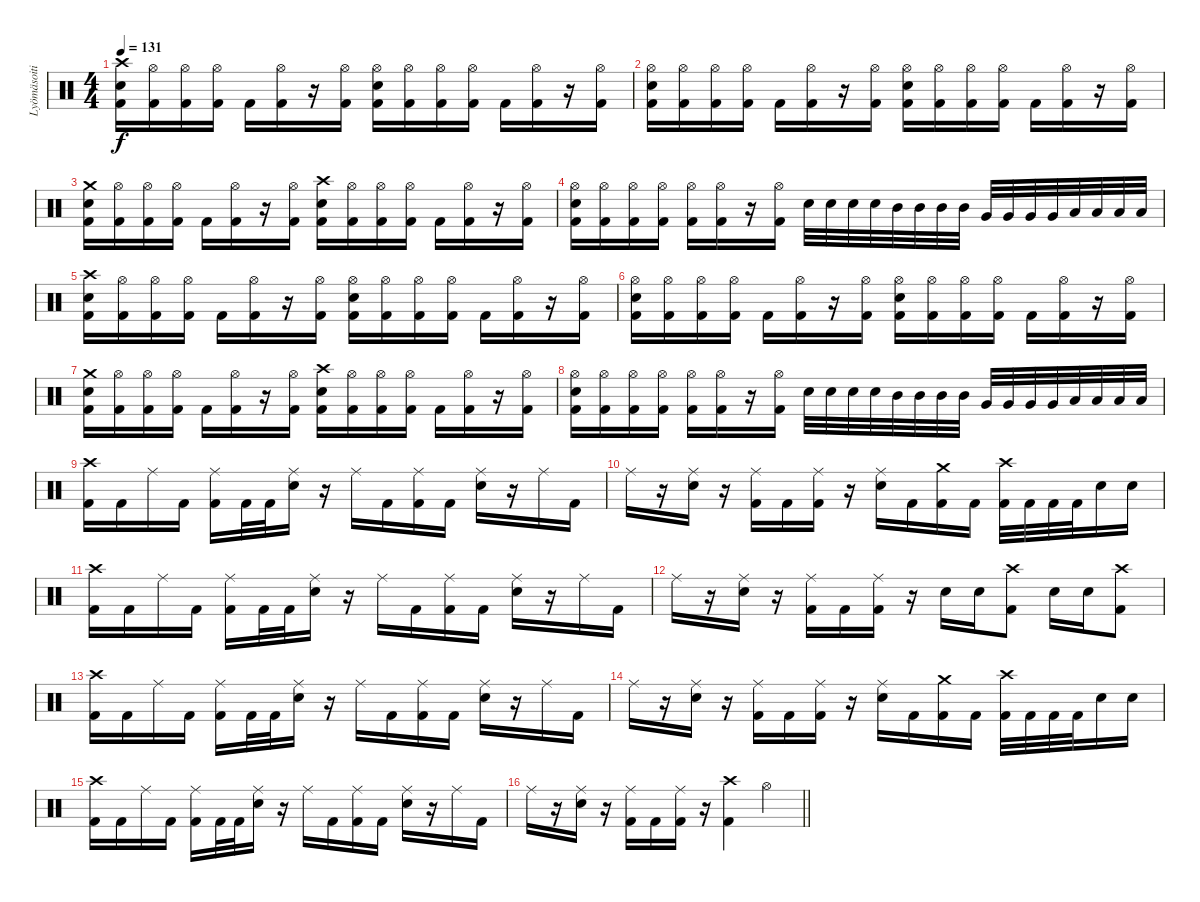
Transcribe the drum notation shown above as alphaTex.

\track ("Lyömäsoitin" "Lyömäsoiti") {instrument percussion}
\staff {score}
\articulation defaults
\ts (4 4)
\tempo 131
\clef neutral
\ks c
("Crash high (hit)" "Electric Snare (hit)" "Kick (hit) 2").16{dy f} ("Hi-Hat (open)" "Kick (hit) 2").16 ("Hi-Hat (open)" "Kick (hit) 2").16 ("Hi-Hat (open)" "Kick (hit) 2").16 "Kick (hit) 2".16 ("Hi-Hat (open)" "Kick (hit) 2").16 r.16 ("Hi-Hat (open)" "Kick (hit) 2").16 ("Hi-Hat (open)" "Electric Snare (hit)" "Kick (hit) 2").16 ("Hi-Hat (open)" "Kick (hit) 2").16 ("Hi-Hat (open)" "Kick (hit) 2").16 ("Hi-Hat (open)" "Kick (hit) 2").16 "Kick (hit) 2".16 ("Hi-Hat (open)" "Kick (hit) 2").16 r.16 ("Hi-Hat (open)" "Kick (hit) 2").16 |
("Hi-Hat (open)" "Electric Snare (hit)" "Kick (hit) 2").16 ("Hi-Hat (open)" "Kick (hit) 2").16 ("Hi-Hat (open)" "Kick (hit) 2").16 ("Hi-Hat (open)" "Kick (hit) 2").16 "Kick (hit) 2".16 ("Hi-Hat (open)" "Kick (hit) 2").16 r.16 ("Hi-Hat (open)" "Kick (hit) 2").16 ("Hi-Hat (open)" "Electric Snare (hit)" "Kick (hit) 2").16 ("Hi-Hat (open)" "Kick (hit) 2").16 ("Hi-Hat (open)" "Kick (hit) 2").16 ("Hi-Hat (open)" "Kick (hit) 2").16 "Kick (hit) 2".16 ("Hi-Hat (open)" "Kick (hit) 2").16 r.16 ("Hi-Hat (open)" "Kick (hit) 2").16 |
("Crash medium (hit)" "Electric Snare (hit)" "Kick (hit) 2").16 ("Hi-Hat (open)" "Kick (hit) 2").16 ("Hi-Hat (open)" "Kick (hit) 2").16 ("Hi-Hat (open)" "Kick (hit) 2").16 "Kick (hit) 2".16 ("Hi-Hat (open)" "Kick (hit) 2").16 r.16 ("Hi-Hat (open)" "Kick (hit) 2").16 ("Crash high (hit)" "Electric Snare (hit)" "Kick (hit) 2").16 ("Hi-Hat (open)" "Kick (hit) 2").16 ("Hi-Hat (open)" "Kick (hit) 2").16 ("Hi-Hat (open)" "Kick (hit) 2").16 "Kick (hit) 2".16 ("Hi-Hat (open)" "Kick (hit) 2").16 r.16 ("Hi-Hat (open)" "Kick (hit) 2").16 |
("Hi-Hat (open)" "Electric Snare (hit)" "Kick (hit) 2").16 ("Hi-Hat (open)" "Kick (hit) 2").16 ("Hi-Hat (open)" "Kick (hit) 2").16 ("Hi-Hat (open)" "Kick (hit) 2").16 ("Hi-Hat (open)" "Kick (hit) 2").16 ("Hi-Hat (open)" "Kick (hit) 2").16 r.16 ("Hi-Hat (open)" "Kick (hit) 2").16 "Electric Snare (hit)".32 "Electric Snare (hit)".32 "Electric Snare (hit)".32 "Electric Snare (hit)".32 "Mid Tom (hit)".32 "Mid Tom (hit)".32 "Mid Tom (hit)".32 "Mid Tom (hit)".32 "Very Low Tom (hit)".32 "Very Low Tom (hit)".32 "Very Low Tom (hit)".32 "Very Low Tom (hit)".32 "Low Floor Tom (hit)".32 "Low Floor Tom (hit)".32 "Low Floor Tom (hit)".32 "Low Floor Tom (hit)".32 |
("Crash high (hit)" "Electric Snare (hit)" "Kick (hit) 2").16 ("Hi-Hat (open)" "Kick (hit) 2").16 ("Hi-Hat (open)" "Kick (hit) 2").16 ("Hi-Hat (open)" "Kick (hit) 2").16 "Kick (hit) 2".16 ("Hi-Hat (open)" "Kick (hit) 2").16 r.16 ("Hi-Hat (open)" "Kick (hit) 2").16 ("Hi-Hat (open)" "Electric Snare (hit)" "Kick (hit) 2").16 ("Hi-Hat (open)" "Kick (hit) 2").16 ("Hi-Hat (open)" "Kick (hit) 2").16 ("Hi-Hat (open)" "Kick (hit) 2").16 "Kick (hit) 2".16 ("Hi-Hat (open)" "Kick (hit) 2").16 r.16 ("Hi-Hat (open)" "Kick (hit) 2").16 |
("Hi-Hat (open)" "Electric Snare (hit)" "Kick (hit) 2").16 ("Hi-Hat (open)" "Kick (hit) 2").16 ("Hi-Hat (open)" "Kick (hit) 2").16 ("Hi-Hat (open)" "Kick (hit) 2").16 "Kick (hit) 2".16 ("Hi-Hat (open)" "Kick (hit) 2").16 r.16 ("Hi-Hat (open)" "Kick (hit) 2").16 ("Hi-Hat (open)" "Electric Snare (hit)" "Kick (hit) 2").16 ("Hi-Hat (open)" "Kick (hit) 2").16 ("Hi-Hat (open)" "Kick (hit) 2").16 ("Hi-Hat (open)" "Kick (hit) 2").16 "Kick (hit) 2".16 ("Hi-Hat (open)" "Kick (hit) 2").16 r.16 ("Hi-Hat (open)" "Kick (hit) 2").16 |
("Crash medium (hit)" "Electric Snare (hit)" "Kick (hit) 2").16 ("Hi-Hat (open)" "Kick (hit) 2").16 ("Hi-Hat (open)" "Kick (hit) 2").16 ("Hi-Hat (open)" "Kick (hit) 2").16 "Kick (hit) 2".16 ("Hi-Hat (open)" "Kick (hit) 2").16 r.16 ("Hi-Hat (open)" "Kick (hit) 2").16 ("Crash high (hit)" "Electric Snare (hit)" "Kick (hit) 2").16 ("Hi-Hat (open)" "Kick (hit) 2").16 ("Hi-Hat (open)" "Kick (hit) 2").16 ("Hi-Hat (open)" "Kick (hit) 2").16 "Kick (hit) 2".16 ("Hi-Hat (open)" "Kick (hit) 2").16 r.16 ("Hi-Hat (open)" "Kick (hit) 2").16 |
("Hi-Hat (open)" "Electric Snare (hit)" "Kick (hit) 2").16 ("Hi-Hat (open)" "Kick (hit) 2").16 ("Hi-Hat (open)" "Kick (hit) 2").16 ("Hi-Hat (open)" "Kick (hit) 2").16 ("Hi-Hat (open)" "Kick (hit) 2").16 ("Hi-Hat (open)" "Kick (hit) 2").16 r.16 ("Hi-Hat (open)" "Kick (hit) 2").16 "Electric Snare (hit)".32 "Electric Snare (hit)".32 "Electric Snare (hit)".32 "Electric Snare (hit)".32 "Mid Tom (hit)".32 "Mid Tom (hit)".32 "Mid Tom (hit)".32 "Mid Tom (hit)".32 "Very Low Tom (hit)".32 "Very Low Tom (hit)".32 "Very Low Tom (hit)".32 "Very Low Tom (hit)".32 "Low Floor Tom (hit)".32 "Low Floor Tom (hit)".32 "Low Floor Tom (hit)".32 "Low Floor Tom (hit)".32 |
("Crash high (hit)" "Kick (hit) 2").16 "Kick (hit) 2".16 "Ride (middle)".16 "Kick (hit) 2".16 ("Ride (middle)" "Kick (hit) 2").16 "Kick (hit) 2".32 "Kick (hit) 2".32 ("Ride (middle)" "Electric Snare (hit)").16 r.16 "Ride (middle)".16 "Kick (hit) 2".16 ("Ride (middle)" "Kick (hit) 2").16 "Kick (hit) 2".16 ("Ride (middle)" "Electric Snare (hit)").16 r.16 "Ride (middle)".16 "Kick (hit) 2".16 |
"Ride (middle)".16 r.16 ("Ride (middle)" "Electric Snare (hit)").16 r.16 ("Ride (middle)" "Kick (hit) 2").16 "Kick (hit) 2".16 ("Ride (middle)" "Kick (hit) 2").16 r.16 ("Ride (middle)" "Electric Snare (hit)").16 "Kick (hit) 2".16 ("Crash medium (hit)" "Kick (hit) 2").16 "Kick (hit) 2".16 ("Crash high (hit)" "Kick (hit) 2").32 "Kick (hit) 2".32 "Kick (hit) 2".32 "Kick (hit) 2".32 "Electric Snare (hit)".16 "Electric Snare (hit)".16 |
("Crash high (hit)" "Kick (hit) 2").16 "Kick (hit) 2".16 "Ride (middle)".16 "Kick (hit) 2".16 ("Ride (middle)" "Kick (hit) 2").16 "Kick (hit) 2".32 "Kick (hit) 2".32 ("Ride (middle)" "Electric Snare (hit)").16 r.16 "Ride (middle)".16 "Kick (hit) 2".16 ("Ride (middle)" "Kick (hit) 2").16 "Kick (hit) 2".16 ("Ride (middle)" "Electric Snare (hit)").16 r.16 "Ride (middle)".16 "Kick (hit) 2".16 |
"Ride (middle)".16 r.16 ("Ride (middle)" "Electric Snare (hit)").16 r.16 ("Ride (middle)" "Kick (hit) 2").16 "Kick (hit) 2".16 ("Ride (middle)" "Kick (hit) 2").16 r.16 "Electric Snare (hit)".16 "Electric Snare (hit)".16 ("Crash high (hit)" "Kick (hit) 2").8 "Electric Snare (hit)".16 "Electric Snare (hit)".16 ("Crash high (hit)" "Kick (hit) 2").8 |
("Crash high (hit)" "Kick (hit) 2").16 "Kick (hit) 2".16 "Ride (middle)".16 "Kick (hit) 2".16 ("Ride (middle)" "Kick (hit) 2").16 "Kick (hit) 2".32 "Kick (hit) 2".32 ("Ride (middle)" "Electric Snare (hit)").16 r.16 "Ride (middle)".16 "Kick (hit) 2".16 ("Ride (middle)" "Kick (hit) 2").16 "Kick (hit) 2".16 ("Ride (middle)" "Electric Snare (hit)").16 r.16 "Ride (middle)".16 "Kick (hit) 2".16 |
"Ride (middle)".16 r.16 ("Ride (middle)" "Electric Snare (hit)").16 r.16 ("Ride (middle)" "Kick (hit) 2").16 "Kick (hit) 2".16 ("Ride (middle)" "Kick (hit) 2").16 r.16 ("Ride (middle)" "Electric Snare (hit)").16 "Kick (hit) 2".16 ("Crash medium (hit)" "Kick (hit) 2").16 "Kick (hit) 2".16 ("Crash high (hit)" "Kick (hit) 2").32 "Kick (hit) 2".32 "Kick (hit) 2".32 "Kick (hit) 2".32 "Electric Snare (hit)".16 "Electric Snare (hit)".16 |
("Crash high (hit)" "Kick (hit) 2").16 "Kick (hit) 2".16 "Ride (middle)".16 "Kick (hit) 2".16 ("Ride (middle)" "Kick (hit) 2").16 "Kick (hit) 2".32 "Kick (hit) 2".32 ("Ride (middle)" "Electric Snare (hit)").16 r.16 "Ride (middle)".16 "Kick (hit) 2".16 ("Ride (middle)" "Kick (hit) 2").16 "Kick (hit) 2".16 ("Ride (middle)" "Electric Snare (hit)").16 r.16 "Ride (middle)".16 "Kick (hit) 2".16 |
\barLineRight lightlight "Ride (middle)".16
r.16 ("Ride (middle)" "Electric Snare (hit)").16 r.16 ("Ride (middle)" "Kick (hit) 2").16 "Kick (hit) 2".16 ("Ride (middle)" "Kick (hit) 2").16 r.16 ("Crash high (hit)" "Kick (hit) 2").4 "Hi-Hat (open)".4
